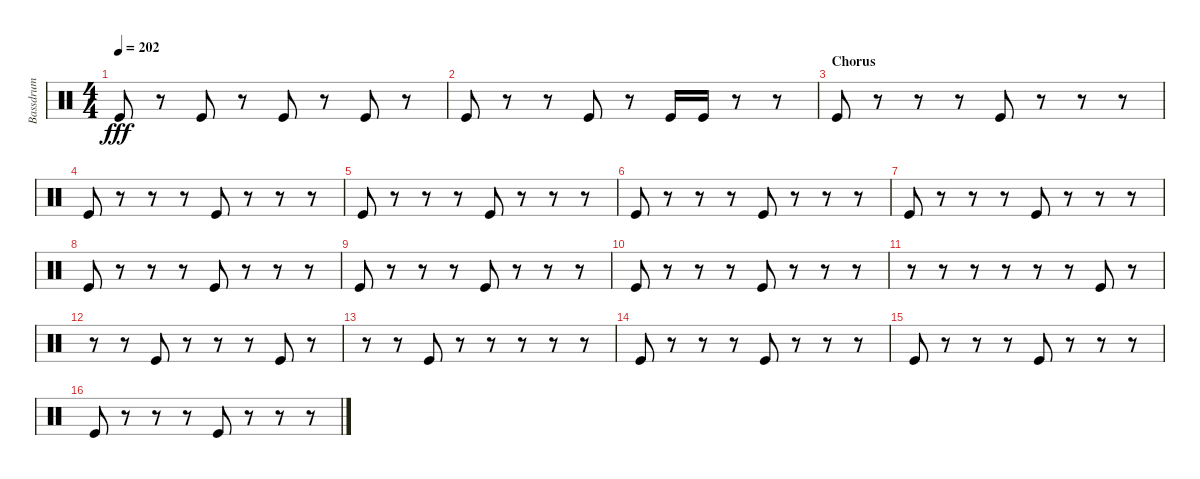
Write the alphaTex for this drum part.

\track ("Bassdrum" "Bassdrum") {instrument percussion}
\staff {score}
\articulation defaults
\ts (4 4)
\tempo 202
\clef neutral
\ks c "Kick (hit)".8{dy fff}
r.8 "Kick (hit)".8 r.8 "Kick (hit)".8 r.8 "Kick (hit)".8 r.8 |
"Kick (hit)".8 r.8 r.8 "Kick (hit)".8 r.8 "Kick (hit)".16 "Kick (hit)".16 r.8 r.8 |
\section ("" "Chorus")
"Kick (hit)".8 r.8 r.8 r.8 "Kick (hit)".8 r.8 r.8 r.8 |
"Kick (hit)".8 r.8 r.8 r.8 "Kick (hit)".8 r.8 r.8 r.8 |
"Kick (hit)".8 r.8 r.8 r.8 "Kick (hit)".8 r.8 r.8 r.8 |
"Kick (hit)".8 r.8 r.8 r.8 "Kick (hit)".8 r.8 r.8 r.8 |
"Kick (hit)".8 r.8 r.8 r.8 "Kick (hit)".8 r.8 r.8 r.8 |
"Kick (hit)".8 r.8 r.8 r.8 "Kick (hit)".8 r.8 r.8 r.8 |
"Kick (hit)".8 r.8 r.8 r.8 "Kick (hit)".8 r.8 r.8 r.8 |
"Kick (hit)".8 r.8 r.8 r.8 "Kick (hit)".8 r.8 r.8 r.8 |
r.8 r.8 r.8 r.8 r.8 r.8 "Kick (hit)".8 r.8 |
r.8 r.8 "Kick (hit)".8 r.8 r.8 r.8 "Kick (hit)".8 r.8 |
r.8 r.8 "Kick (hit)".8 r.8 r.8 r.8 r.8 r.8 |
"Kick (hit)".8 r.8 r.8 r.8 "Kick (hit)".8 r.8 r.8 r.8 |
"Kick (hit)".8 r.8 r.8 r.8 "Kick (hit)".8 r.8 r.8 r.8 |
"Kick (hit)".8 r.8 r.8 r.8 "Kick (hit)".8 r.8 r.8 r.8
